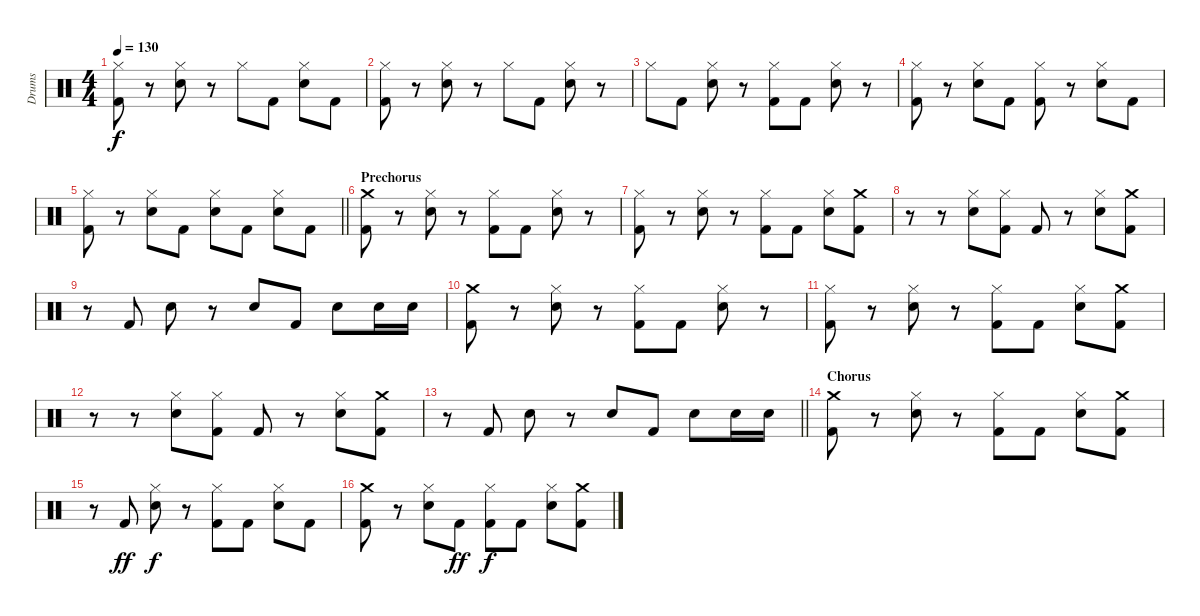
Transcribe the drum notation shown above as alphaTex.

\track ("Drums" "Drums") {instrument percussion}
\staff {score}
\articulation defaults
\ts (4 4)
\tempo 130
\clef neutral
\ks c
("Hi-Hat (closed)" "Kick (hit) 2").8{dy f} r.8 ("Hi-Hat (closed)" "Snare (hit) 2").8 r.8 "Hi-Hat (closed)".8 "Kick (hit) 2".8 ("Hi-Hat (closed)" "Snare (hit) 2").8 "Kick (hit) 2".8 |
("Hi-Hat (closed)" "Kick (hit) 2").8 r.8 ("Hi-Hat (closed)" "Snare (hit) 2").8 r.8 "Hi-Hat (closed)".8 "Kick (hit) 2".8 ("Hi-Hat (closed)" "Snare (hit) 2").8 r.8 |
"Hi-Hat (closed)".8 "Kick (hit) 2".8 ("Hi-Hat (closed)" "Snare (hit) 2").8 r.8 ("Hi-Hat (closed)" "Kick (hit) 2").8 "Kick (hit) 2".8 ("Hi-Hat (closed)" "Snare (hit) 2").8 r.8 |
("Hi-Hat (closed)" "Kick (hit) 2").8 r.8 ("Hi-Hat (closed)" "Snare (hit) 2").8 "Kick (hit) 2".8 ("Hi-Hat (closed)" "Kick (hit) 2").8 r.8 ("Hi-Hat (closed)" "Snare (hit) 2").8 "Kick (hit) 2".8 |
\barLineRight lightlight
("Hi-Hat (closed)" "Kick (hit) 2").8 r.8 ("Hi-Hat (closed)" "Snare (hit) 2").8 "Kick (hit) 2".8 ("Hi-Hat (closed)" "Snare (hit) 2").8 "Kick (hit) 2".8 ("Hi-Hat (closed)" "Snare (hit) 2").8 "Kick (hit) 2".8 |
\section ("" "Prechorus")
("Crash medium (hit)" "Kick (hit) 2").8 r.8 ("Hi-Hat (closed)" "Snare (hit) 2").8 r.8 ("Hi-Hat (closed)" "Kick (hit) 2").8 "Kick (hit) 2".8 ("Hi-Hat (closed)" "Snare (hit) 2").8 r.8 |
("Hi-Hat (closed)" "Kick (hit) 2").8 r.8 ("Hi-Hat (closed)" "Snare (hit) 2").8 r.8 ("Hi-Hat (closed)" "Kick (hit) 2").8 "Kick (hit) 2".8 ("Hi-Hat (closed)" "Snare (hit) 2").8 ("Crash medium (hit)" "Kick (hit) 2").8 |
r.8 r.8 ("Hi-Hat (closed)" "Snare (hit) 2").8 ("Hi-Hat (closed)" "Kick (hit) 2").8 "Kick (hit) 2".8 r.8 ("Hi-Hat (closed)" "Snare (hit) 2").8 ("Crash medium (hit)" "Kick (hit) 2").8 |
r.8 "Kick (hit) 2".8 "Snare (hit) 2".8 r.8 "Snare (hit) 2".8 "Kick (hit) 2".8 "Snare (hit) 2".8 "Snare (hit) 2".16 "Snare (hit) 2".16 |
("Crash medium (hit)" "Kick (hit) 2").8 r.8 ("Hi-Hat (closed)" "Snare (hit) 2").8 r.8 ("Hi-Hat (closed)" "Kick (hit) 2").8 "Kick (hit) 2".8 ("Hi-Hat (closed)" "Snare (hit) 2").8 r.8 |
("Hi-Hat (closed)" "Kick (hit) 2").8 r.8 ("Hi-Hat (closed)" "Snare (hit) 2").8 r.8 ("Hi-Hat (closed)" "Kick (hit) 2").8 "Kick (hit) 2".8 ("Hi-Hat (closed)" "Snare (hit) 2").8 ("Crash medium (hit)" "Kick (hit) 2").8 |
r.8 r.8 ("Hi-Hat (closed)" "Snare (hit) 2").8 ("Hi-Hat (closed)" "Kick (hit) 2").8 "Kick (hit) 2".8 r.8 ("Hi-Hat (closed)" "Snare (hit) 2").8 ("Crash medium (hit)" "Kick (hit) 2").8 |
\barLineRight lightlight
r.8 "Kick (hit) 2".8 "Snare (hit) 2".8 r.8 "Snare (hit) 2".8 "Kick (hit) 2".8 "Snare (hit) 2".8 "Snare (hit) 2".16 "Snare (hit) 2".16 |
\section ("" "Chorus")
("Crash medium (hit)" "Kick (hit) 2").8 r.8 ("Hi-Hat (closed)" "Snare (hit) 2").8 r.8 ("Hi-Hat (closed)" "Kick (hit) 2").8 "Kick (hit) 2".8 ("Hi-Hat (closed)" "Snare (hit) 2").8 ("Crash medium (hit)" "Kick (hit) 2").8 |
r.8 "Kick (hit) 2".8{dy ff} ("Hi-Hat (closed)" "Snare (hit) 2").8{dy f} r.8 ("Hi-Hat (closed)" "Kick (hit) 2").8 "Kick (hit) 2".8 ("Hi-Hat (closed)" "Snare (hit) 2").8 "Kick (hit) 2".8 |
("Crash medium (hit)" "Kick (hit) 2").8 r.8 ("Hi-Hat (closed)" "Snare (hit) 2").8 "Kick (hit) 2".8{dy ff} ("Hi-Hat (closed)" "Kick (hit) 2").8{dy f} "Kick (hit) 2".8 ("Hi-Hat (closed)" "Snare (hit) 2").8 ("Crash medium (hit)" "Kick (hit) 2").8
